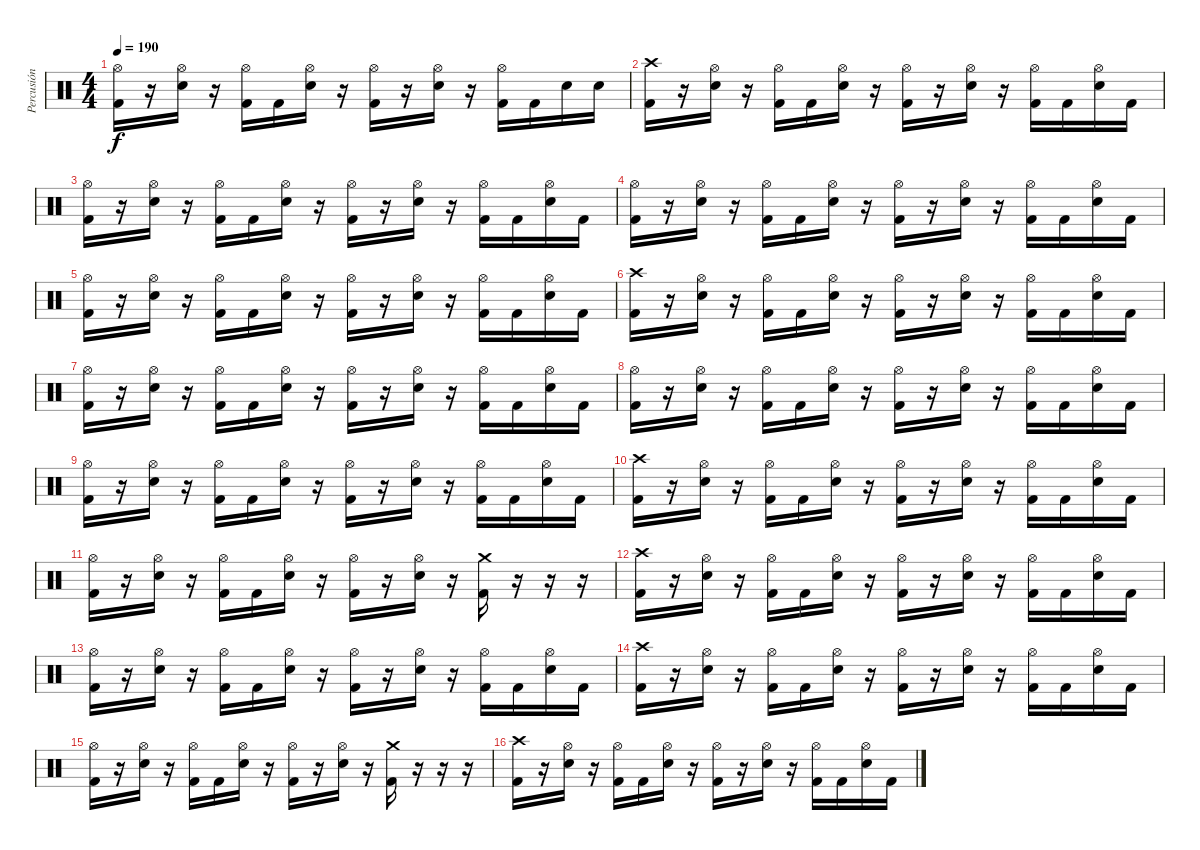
\track ("Percusión" "Percusión") {instrument percussion}
\staff {score}
\articulation defaults
\ts (4 4)
\tempo 190
\clef neutral
\ks c
("Hi-Hat (open)" "Kick (hit) 2").16{dy f} r.16 ("Hi-Hat (open)" "Electric Snare (hit)").16 r.16 ("Hi-Hat (open)" "Kick (hit) 2").16 "Kick (hit) 2".16 ("Hi-Hat (open)" "Electric Snare (hit)").16 r.16 ("Hi-Hat (open)" "Kick (hit) 2").16 r.16 ("Hi-Hat (open)" "Electric Snare (hit)").16 r.16 ("Hi-Hat (open)" "Kick (hit) 2").16 "Kick (hit) 2".16 "Electric Snare (hit)".16 "Electric Snare (hit)".16 |
("Crash high (hit)" "Kick (hit) 2").16 r.16 ("Hi-Hat (open)" "Electric Snare (hit)").16 r.16 ("Hi-Hat (open)" "Kick (hit) 2").16 "Kick (hit) 2".16 ("Hi-Hat (open)" "Electric Snare (hit)").16 r.16 ("Hi-Hat (open)" "Kick (hit) 2").16 r.16 ("Hi-Hat (open)" "Electric Snare (hit)").16 r.16 ("Hi-Hat (open)" "Kick (hit) 2").16 "Kick (hit) 2".16 ("Hi-Hat (open)" "Electric Snare (hit)").16 "Kick (hit) 2".16 |
("Hi-Hat (open)" "Kick (hit) 2").16 r.16 ("Hi-Hat (open)" "Electric Snare (hit)").16 r.16 ("Hi-Hat (open)" "Kick (hit) 2").16 "Kick (hit) 2".16 ("Hi-Hat (open)" "Electric Snare (hit)").16 r.16 ("Hi-Hat (open)" "Kick (hit) 2").16 r.16 ("Hi-Hat (open)" "Electric Snare (hit)").16 r.16 ("Hi-Hat (open)" "Kick (hit) 2").16 "Kick (hit) 2".16 ("Hi-Hat (open)" "Electric Snare (hit)").16 "Kick (hit) 2".16 |
("Hi-Hat (open)" "Kick (hit) 2").16 r.16 ("Hi-Hat (open)" "Electric Snare (hit)").16 r.16 ("Hi-Hat (open)" "Kick (hit) 2").16 "Kick (hit) 2".16 ("Hi-Hat (open)" "Electric Snare (hit)").16 r.16 ("Hi-Hat (open)" "Kick (hit) 2").16 r.16 ("Hi-Hat (open)" "Electric Snare (hit)").16 r.16 ("Hi-Hat (open)" "Kick (hit) 2").16 "Kick (hit) 2".16 ("Hi-Hat (open)" "Electric Snare (hit)").16 "Kick (hit) 2".16 |
("Hi-Hat (open)" "Kick (hit) 2").16 r.16 ("Hi-Hat (open)" "Electric Snare (hit)").16 r.16 ("Hi-Hat (open)" "Kick (hit) 2").16 "Kick (hit) 2".16 ("Hi-Hat (open)" "Electric Snare (hit)").16 r.16 ("Hi-Hat (open)" "Kick (hit) 2").16 r.16 ("Hi-Hat (open)" "Electric Snare (hit)").16 r.16 ("Hi-Hat (open)" "Kick (hit) 2").16 "Kick (hit) 2".16 ("Hi-Hat (open)" "Electric Snare (hit)").16 "Kick (hit) 2".16 |
("Crash high (hit)" "Kick (hit) 2").16 r.16 ("Hi-Hat (open)" "Electric Snare (hit)").16 r.16 ("Hi-Hat (open)" "Kick (hit) 2").16 "Kick (hit) 2".16 ("Hi-Hat (open)" "Electric Snare (hit)").16 r.16 ("Hi-Hat (open)" "Kick (hit) 2").16 r.16 ("Hi-Hat (open)" "Electric Snare (hit)").16 r.16 ("Hi-Hat (open)" "Kick (hit) 2").16 "Kick (hit) 2".16 ("Hi-Hat (open)" "Electric Snare (hit)").16 "Kick (hit) 2".16 |
("Hi-Hat (open)" "Kick (hit) 2").16 r.16 ("Hi-Hat (open)" "Electric Snare (hit)").16 r.16 ("Hi-Hat (open)" "Kick (hit) 2").16 "Kick (hit) 2".16 ("Hi-Hat (open)" "Electric Snare (hit)").16 r.16 ("Hi-Hat (open)" "Kick (hit) 2").16 r.16 ("Hi-Hat (open)" "Electric Snare (hit)").16 r.16 ("Hi-Hat (open)" "Kick (hit) 2").16 "Kick (hit) 2".16 ("Hi-Hat (open)" "Electric Snare (hit)").16 "Kick (hit) 2".16 |
("Hi-Hat (open)" "Kick (hit) 2").16 r.16 ("Hi-Hat (open)" "Electric Snare (hit)").16 r.16 ("Hi-Hat (open)" "Kick (hit) 2").16 "Kick (hit) 2".16 ("Hi-Hat (open)" "Electric Snare (hit)").16 r.16 ("Hi-Hat (open)" "Kick (hit) 2").16 r.16 ("Hi-Hat (open)" "Electric Snare (hit)").16 r.16 ("Hi-Hat (open)" "Kick (hit) 2").16 "Kick (hit) 2".16 ("Hi-Hat (open)" "Electric Snare (hit)").16 "Kick (hit) 2".16 |
("Hi-Hat (open)" "Kick (hit) 2").16 r.16 ("Hi-Hat (open)" "Electric Snare (hit)").16 r.16 ("Hi-Hat (open)" "Kick (hit) 2").16 "Kick (hit) 2".16 ("Hi-Hat (open)" "Electric Snare (hit)").16 r.16 ("Hi-Hat (open)" "Kick (hit) 2").16 r.16 ("Hi-Hat (open)" "Electric Snare (hit)").16 r.16 ("Hi-Hat (open)" "Kick (hit) 2").16 "Kick (hit) 2".16 ("Hi-Hat (open)" "Electric Snare (hit)").16 "Kick (hit) 2".16 |
("Crash high (hit)" "Kick (hit) 2").16 r.16 ("Hi-Hat (open)" "Electric Snare (hit)").16 r.16 ("Hi-Hat (open)" "Kick (hit) 2").16 "Kick (hit) 2".16 ("Hi-Hat (open)" "Electric Snare (hit)").16 r.16 ("Hi-Hat (open)" "Kick (hit) 2").16 r.16 ("Hi-Hat (open)" "Electric Snare (hit)").16 r.16 ("Hi-Hat (open)" "Kick (hit) 2").16 "Kick (hit) 2".16 ("Hi-Hat (open)" "Electric Snare (hit)").16 "Kick (hit) 2".16 |
("Hi-Hat (open)" "Kick (hit) 2").16 r.16 ("Hi-Hat (open)" "Electric Snare (hit)").16 r.16 ("Hi-Hat (open)" "Kick (hit) 2").16 "Kick (hit) 2".16 ("Hi-Hat (open)" "Electric Snare (hit)").16 r.16 ("Hi-Hat (open)" "Kick (hit) 2").16 r.16 ("Hi-Hat (open)" "Electric Snare (hit)").16 r.16 ("Crash medium (hit)" "Kick (hit) 2").16 r.16 r.16 r.16 |
("Crash high (hit)" "Kick (hit) 2").16 r.16 ("Hi-Hat (open)" "Electric Snare (hit)").16 r.16 ("Hi-Hat (open)" "Kick (hit) 2").16 "Kick (hit) 2".16 ("Hi-Hat (open)" "Electric Snare (hit)").16 r.16 ("Hi-Hat (open)" "Kick (hit) 2").16 r.16 ("Hi-Hat (open)" "Electric Snare (hit)").16 r.16 ("Hi-Hat (open)" "Kick (hit) 2").16 "Kick (hit) 2".16 ("Hi-Hat (open)" "Electric Snare (hit)").16 "Kick (hit) 2".16 |
("Hi-Hat (open)" "Kick (hit) 2").16 r.16 ("Hi-Hat (open)" "Electric Snare (hit)").16 r.16 ("Hi-Hat (open)" "Kick (hit) 2").16 "Kick (hit) 2".16 ("Hi-Hat (open)" "Electric Snare (hit)").16 r.16 ("Hi-Hat (open)" "Kick (hit) 2").16 r.16 ("Hi-Hat (open)" "Electric Snare (hit)").16 r.16 ("Hi-Hat (open)" "Kick (hit) 2").16 "Kick (hit) 2".16 ("Hi-Hat (open)" "Electric Snare (hit)").16 "Kick (hit) 2".16 |
("Crash high (hit)" "Kick (hit) 2").16 r.16 ("Hi-Hat (open)" "Electric Snare (hit)").16 r.16 ("Hi-Hat (open)" "Kick (hit) 2").16 "Kick (hit) 2".16 ("Hi-Hat (open)" "Electric Snare (hit)").16 r.16 ("Hi-Hat (open)" "Kick (hit) 2").16 r.16 ("Hi-Hat (open)" "Electric Snare (hit)").16 r.16 ("Hi-Hat (open)" "Kick (hit) 2").16 "Kick (hit) 2".16 ("Hi-Hat (open)" "Electric Snare (hit)").16 "Kick (hit) 2".16 |
("Hi-Hat (open)" "Kick (hit) 2").16 r.16 ("Hi-Hat (open)" "Electric Snare (hit)").16 r.16 ("Hi-Hat (open)" "Kick (hit) 2").16 "Kick (hit) 2".16 ("Hi-Hat (open)" "Electric Snare (hit)").16 r.16 ("Hi-Hat (open)" "Kick (hit) 2").16 r.16 ("Hi-Hat (open)" "Electric Snare (hit)").16 r.16 ("Crash medium (hit)" "Kick (hit) 2").16 r.16 r.16 r.16 |
("Crash high (hit)" "Kick (hit) 2").16 r.16 ("Hi-Hat (open)" "Electric Snare (hit)").16 r.16 ("Hi-Hat (open)" "Kick (hit) 2").16 "Kick (hit) 2".16 ("Hi-Hat (open)" "Electric Snare (hit)").16 r.16 ("Hi-Hat (open)" "Kick (hit) 2").16 r.16 ("Hi-Hat (open)" "Electric Snare (hit)").16 r.16 ("Hi-Hat (open)" "Kick (hit) 2").16 "Kick (hit) 2".16 ("Hi-Hat (open)" "Electric Snare (hit)").16 "Kick (hit) 2".16
